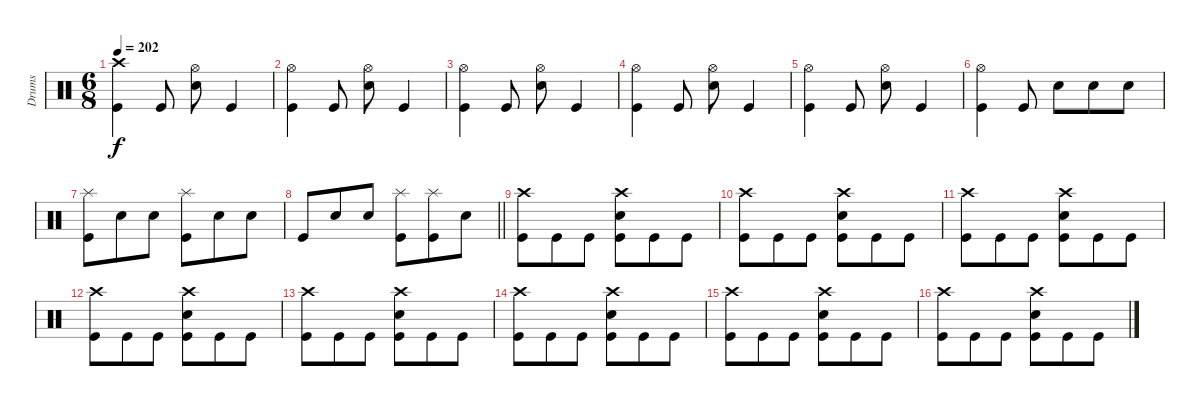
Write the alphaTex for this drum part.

\track ("Drums" "Drums") {instrument percussion}
\staff {score}
\articulation defaults
\ts (6 8)
\tempo 202
\clef neutral
\ks c
("Crash high (hit)" "Kick (hit)").4{dy f} "Kick (hit)".8 ("Hi-Hat (open)" "Electric Snare (hit)").8 "Kick (hit)".4 |
("Hi-Hat (open)" "Kick (hit)").4 "Kick (hit)".8 ("Hi-Hat (open)" "Electric Snare (hit)").8 "Kick (hit)".4 |
("Hi-Hat (open)" "Kick (hit)").4 "Kick (hit)".8 ("Hi-Hat (open)" "Electric Snare (hit)").8 "Kick (hit)".4 |
("Hi-Hat (open)" "Kick (hit)").4 "Kick (hit)".8 ("Hi-Hat (open)" "Electric Snare (hit)").8 "Kick (hit)".4 |
("Hi-Hat (open)" "Kick (hit)").4 "Kick (hit)".8 ("Hi-Hat (open)" "Electric Snare (hit)").8 "Kick (hit)".4 |
("Hi-Hat (open)" "Kick (hit)").4 "Kick (hit)".8 "Electric Snare (hit)".8 "Electric Snare (hit)".8 "Electric Snare (hit)".8 |
("Splash (hit)" "Kick (hit)").8 "Electric Snare (hit)".8 "Electric Snare (hit)".8 ("Splash (hit)" "Kick (hit)").8 "Electric Snare (hit)".8 "Electric Snare (hit)".8 |
\barLineRight lightlight "Kick (hit)".8 "Electric Snare (hit)".8 "Electric Snare (hit)".8
("Splash (hit)" "Kick (hit)").8 ("Splash (hit)" "Kick (hit)").8 "Electric Snare (hit)".8 |
\section ("" "")
("Crash high (hit)" "Kick (hit)").8 "Kick (hit)".8 "Kick (hit)".8 ("Crash high (hit)" "Electric Snare (hit)" "Kick (hit)").8 "Kick (hit)".8 "Kick (hit)".8 |
("Crash high (hit)" "Kick (hit)").8 "Kick (hit)".8 "Kick (hit)".8 ("Crash high (hit)" "Electric Snare (hit)" "Kick (hit)").8 "Kick (hit)".8 "Kick (hit)".8 |
("Crash high (hit)" "Kick (hit)").8 "Kick (hit)".8 "Kick (hit)".8 ("Crash high (hit)" "Electric Snare (hit)" "Kick (hit)").8 "Kick (hit)".8 "Kick (hit)".8 |
("Crash high (hit)" "Kick (hit)").8 "Kick (hit)".8 "Kick (hit)".8 ("Crash high (hit)" "Electric Snare (hit)" "Kick (hit)").8 "Kick (hit)".8 "Kick (hit)".8 |
("Crash high (hit)" "Kick (hit)").8 "Kick (hit)".8 "Kick (hit)".8 ("Crash high (hit)" "Electric Snare (hit)" "Kick (hit)").8 "Kick (hit)".8 "Kick (hit)".8 |
("Crash high (hit)" "Kick (hit)").8 "Kick (hit)".8 "Kick (hit)".8 ("Crash high (hit)" "Electric Snare (hit)" "Kick (hit)").8 "Kick (hit)".8 "Kick (hit)".8 |
("Crash high (hit)" "Kick (hit)").8 "Kick (hit)".8 "Kick (hit)".8 ("Crash high (hit)" "Electric Snare (hit)" "Kick (hit)").8 "Kick (hit)".8 "Kick (hit)".8 |
("Crash high (hit)" "Kick (hit)").8 "Kick (hit)".8 "Kick (hit)".8 ("Crash high (hit)" "Electric Snare (hit)" "Kick (hit)").8 "Kick (hit)".8 "Kick (hit)".8
